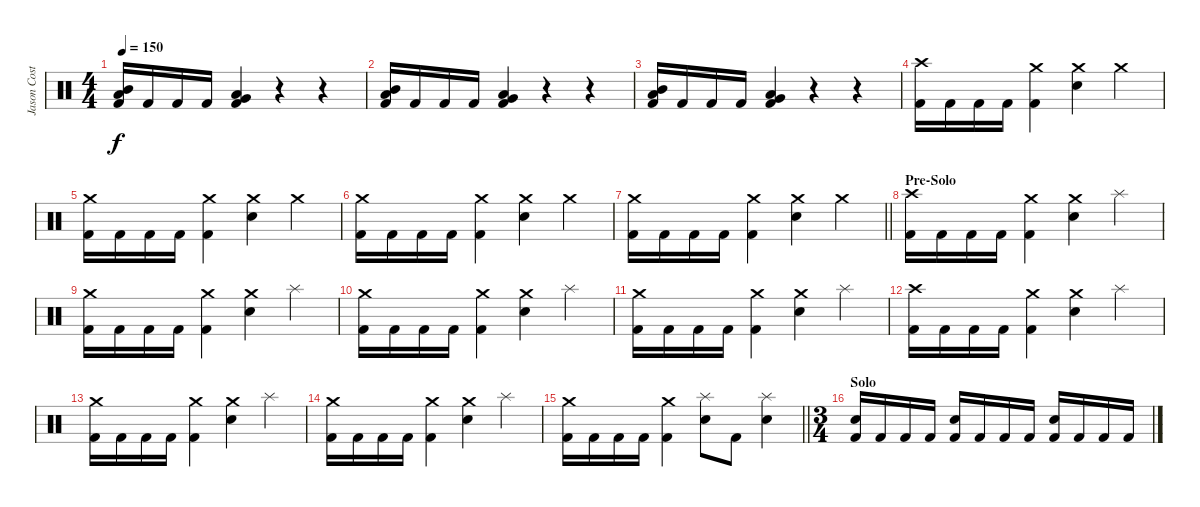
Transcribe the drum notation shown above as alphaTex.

\track ("Jason Costa" "Jason Cost") {instrument percussion}
\staff {score}
\articulation defaults
\ts (4 4)
\tempo 150
\clef neutral
\ks c
("Mid Tom (hit)" "Low Tom (hit)" "Kick (hit) 2").16{dy f} "Kick (hit) 2".16 "Kick (hit) 2".16 "Kick (hit) 2".16 ("Low Tom (hit)" "Very Low Tom (hit)" "Kick (hit) 2").4 r.4 r.4 |
("Mid Tom (hit)" "Low Tom (hit)" "Kick (hit) 2").16 "Kick (hit) 2".16 "Kick (hit) 2".16 "Kick (hit) 2".16 ("Low Tom (hit)" "Very Low Tom (hit)" "Kick (hit) 2").4 r.4 r.4 |
("Mid Tom (hit)" "Low Tom (hit)" "Kick (hit) 2").16 "Kick (hit) 2".16 "Kick (hit) 2".16 "Kick (hit) 2".16 ("Low Tom (hit)" "Very Low Tom (hit)" "Kick (hit) 2").4 r.4 r.4 |
("Crash high (hit)" "Kick (hit) 2").16 "Kick (hit) 2".16 "Kick (hit) 2".16 "Kick (hit) 2".16 ("Crash medium (hit)" "Kick (hit) 2").4 ("Crash medium (hit)" "Electric Snare (hit)").4 "Crash medium (hit)".4 |
("Crash medium (hit)" "Kick (hit) 2").16 "Kick (hit) 2".16 "Kick (hit) 2".16 "Kick (hit) 2".16 ("Crash medium (hit)" "Kick (hit) 2").4 ("Crash medium (hit)" "Electric Snare (hit)").4 "Crash medium (hit)".4 |
("Crash medium (hit)" "Kick (hit) 2").16 "Kick (hit) 2".16 "Kick (hit) 2".16 "Kick (hit) 2".16 ("Crash medium (hit)" "Kick (hit) 2").4 ("Crash medium (hit)" "Electric Snare (hit)").4 "Crash medium (hit)".4 |
\barLineRight lightlight
("Crash medium (hit)" "Kick (hit) 2").16 "Kick (hit) 2".16 "Kick (hit) 2".16 "Kick (hit) 2".16 ("Crash medium (hit)" "Kick (hit) 2").4 ("Crash medium (hit)" "Electric Snare (hit)").4 "Crash medium (hit)".4 |
\section ("" "Pre-Solo")
("Crash high (hit)" "Kick (hit) 2").16 "Kick (hit) 2".16 "Kick (hit) 2".16 "Kick (hit) 2".16 ("Crash medium (hit)" "Kick (hit) 2").4 ("Crash medium (hit)" "Electric Snare (hit)").4 "Splash (hit)".4 |
("Crash medium (hit)" "Kick (hit) 2").16 "Kick (hit) 2".16 "Kick (hit) 2".16 "Kick (hit) 2".16 ("Crash medium (hit)" "Kick (hit) 2").4 ("Crash medium (hit)" "Electric Snare (hit)").4 "Splash (hit)".4 |
("Crash medium (hit)" "Kick (hit) 2").16 "Kick (hit) 2".16 "Kick (hit) 2".16 "Kick (hit) 2".16 ("Crash medium (hit)" "Kick (hit) 2").4 ("Crash medium (hit)" "Electric Snare (hit)").4 "Splash (hit)".4 |
("Crash medium (hit)" "Kick (hit) 2").16 "Kick (hit) 2".16 "Kick (hit) 2".16 "Kick (hit) 2".16 ("Crash medium (hit)" "Kick (hit) 2").4 ("Crash medium (hit)" "Electric Snare (hit)").4 "Splash (hit)".4 |
("Crash high (hit)" "Kick (hit) 2").16 "Kick (hit) 2".16 "Kick (hit) 2".16 "Kick (hit) 2".16 ("Crash medium (hit)" "Kick (hit) 2").4 ("Crash medium (hit)" "Electric Snare (hit)").4 "Splash (hit)".4 |
("Crash medium (hit)" "Kick (hit) 2").16 "Kick (hit) 2".16 "Kick (hit) 2".16 "Kick (hit) 2".16 ("Crash medium (hit)" "Kick (hit) 2").4 ("Crash medium (hit)" "Electric Snare (hit)").4 "Splash (hit)".4 |
("Crash medium (hit)" "Kick (hit) 2").16 "Kick (hit) 2".16 "Kick (hit) 2".16 "Kick (hit) 2".16 ("Crash medium (hit)" "Kick (hit) 2").4 ("Crash medium (hit)" "Electric Snare (hit)").4 "Splash (hit)".4 |
\barLineRight lightlight
("Crash medium (hit)" "Kick (hit) 2").16 "Kick (hit) 2".16 "Kick (hit) 2".16 "Kick (hit) 2".16 ("Crash medium (hit)" "Kick (hit) 2").4 ("Splash (hit)" "Electric Snare (hit)").8 "Kick (hit) 2".8 ("Splash (hit)" "Electric Snare (hit)").4 |
\ts (3 4)
\section ("" "Solo")
("Electric Snare (hit)" "Kick (hit) 2").16 "Kick (hit) 2".16 "Kick (hit) 2".16 "Kick (hit) 2".16 ("Electric Snare (hit)" "Kick (hit) 2").16 "Kick (hit) 2".16 "Kick (hit) 2".16 "Kick (hit) 2".16 ("Electric Snare (hit)" "Kick (hit) 2").16 "Kick (hit) 2".16 "Kick (hit) 2".16 "Kick (hit) 2".16
